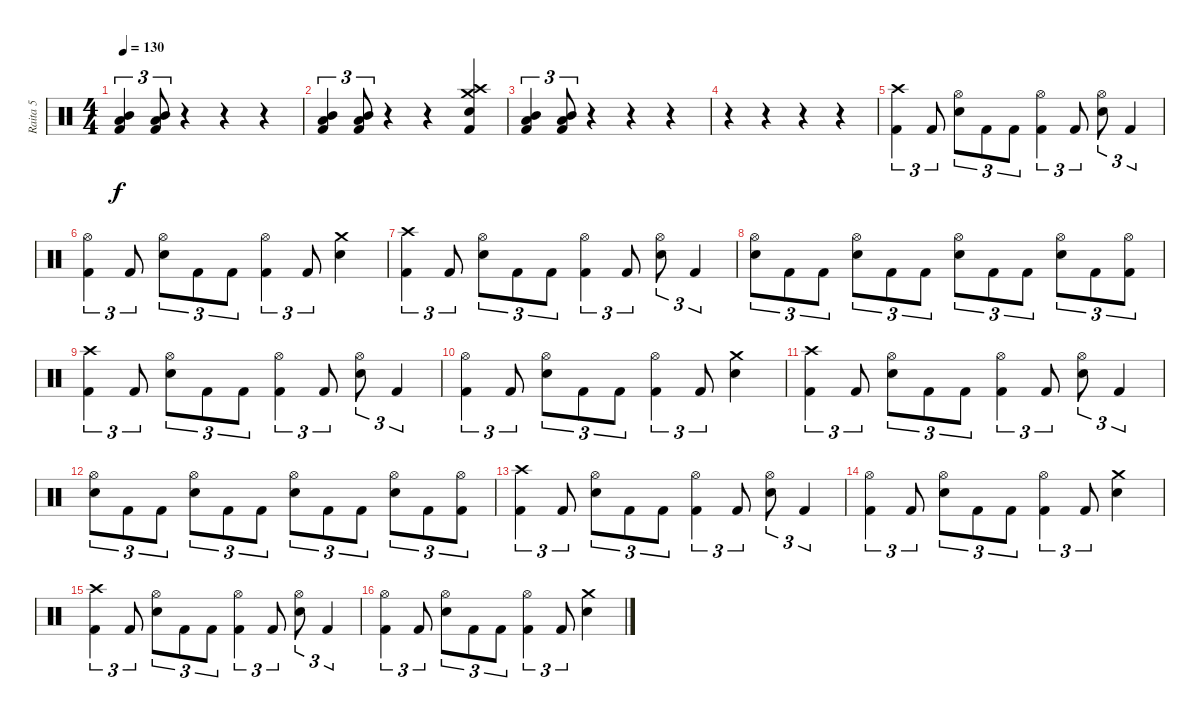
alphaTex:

\track ("Raita 5" "Raita 5") {instrument percussion}
\staff {score}
\articulation defaults
\ts (4 4)
\tempo 130
\clef neutral
\ks c
("Mid Tom (hit)" "Low Tom (hit)" "Kick (hit) 2").4{tu (3 2) dy f} ("Mid Tom (hit)" "Low Tom (hit)" "Kick (hit) 2").8{tu (3 2)} r.4 r.4 r.4 |
("Mid Tom (hit)" "Low Tom (hit)" "Kick (hit) 2").4{tu (3 2)} ("Mid Tom (hit)" "Low Tom (hit)" "Kick (hit) 2").8{tu (3 2)} r.4 r.4 ("Crash medium (hit)" "Crash high (hit)" "Snare (hit) 2" "Kick (hit) 2").4 |
("Mid Tom (hit)" "Low Tom (hit)" "Kick (hit) 2").4{tu (3 2)} ("Mid Tom (hit)" "Low Tom (hit)" "Kick (hit) 2").8{tu (3 2)} r.4 r.4 r.4 |
r.4 r.4 r.4 r.4 |
("Crash high (hit)" "Kick (hit) 2").4{tu (3 2)} "Kick (hit) 2".8{tu (3 2)} ("Hi-Hat (open)" "Snare (hit) 2").8{tu (3 2)} "Kick (hit) 2".8{tu (3 2)} "Kick (hit) 2".8{tu (3 2)} ("Hi-Hat (open)" "Kick (hit) 2").4{tu (3 2)} "Kick (hit) 2".8{tu (3 2)} ("Hi-Hat (open)" "Snare (hit) 2").8{tu (3 2)} "Kick (hit) 2".4{tu (3 2)} |
("Hi-Hat (open)" "Kick (hit) 2").4{tu (3 2)} "Kick (hit) 2".8{tu (3 2)} ("Hi-Hat (open)" "Snare (hit) 2").8{tu (3 2)} "Kick (hit) 2".8{tu (3 2)} "Kick (hit) 2".8{tu (3 2)} ("Hi-Hat (open)" "Kick (hit) 2").4{tu (3 2)} "Kick (hit) 2".8{tu (3 2)} ("Crash medium (hit)" "Snare (hit) 2").4 |
("Crash high (hit)" "Kick (hit) 2").4{tu (3 2)} "Kick (hit) 2".8{tu (3 2)} ("Hi-Hat (open)" "Snare (hit) 2").8{tu (3 2)} "Kick (hit) 2".8{tu (3 2)} "Kick (hit) 2".8{tu (3 2)} ("Hi-Hat (open)" "Kick (hit) 2").4{tu (3 2)} "Kick (hit) 2".8{tu (3 2)} ("Hi-Hat (open)" "Snare (hit) 2").8{tu (3 2)} "Kick (hit) 2".4{tu (3 2)} |
("Hi-Hat (open)" "Snare (hit) 2").8{tu (3 2)} "Kick (hit) 2".8{tu (3 2)} "Kick (hit) 2".8{tu (3 2)} ("Hi-Hat (open)" "Snare (hit) 2").8{tu (3 2)} "Kick (hit) 2".8{tu (3 2)} "Kick (hit) 2".8{tu (3 2)} ("Hi-Hat (open)" "Snare (hit) 2").8{tu (3 2)} "Kick (hit) 2".8{tu (3 2)} "Kick (hit) 2".8{tu (3 2)} ("Hi-Hat (open)" "Snare (hit) 2").8{tu (3 2)} "Kick (hit) 2".8{tu (3 2)} ("Hi-Hat (open)" "Kick (hit) 2").8{tu (3 2)} |
("Crash high (hit)" "Kick (hit) 2").4{tu (3 2)} "Kick (hit) 2".8{tu (3 2)} ("Hi-Hat (open)" "Snare (hit) 2").8{tu (3 2)} "Kick (hit) 2".8{tu (3 2)} "Kick (hit) 2".8{tu (3 2)} ("Hi-Hat (open)" "Kick (hit) 2").4{tu (3 2)} "Kick (hit) 2".8{tu (3 2)} ("Hi-Hat (open)" "Snare (hit) 2").8{tu (3 2)} "Kick (hit) 2".4{tu (3 2)} |
("Hi-Hat (open)" "Kick (hit) 2").4{tu (3 2)} "Kick (hit) 2".8{tu (3 2)} ("Hi-Hat (open)" "Snare (hit) 2").8{tu (3 2)} "Kick (hit) 2".8{tu (3 2)} "Kick (hit) 2".8{tu (3 2)} ("Hi-Hat (open)" "Kick (hit) 2").4{tu (3 2)} "Kick (hit) 2".8{tu (3 2)} ("Crash medium (hit)" "Snare (hit) 2").4 |
("Crash high (hit)" "Kick (hit) 2").4{tu (3 2)} "Kick (hit) 2".8{tu (3 2)} ("Hi-Hat (open)" "Snare (hit) 2").8{tu (3 2)} "Kick (hit) 2".8{tu (3 2)} "Kick (hit) 2".8{tu (3 2)} ("Hi-Hat (open)" "Kick (hit) 2").4{tu (3 2)} "Kick (hit) 2".8{tu (3 2)} ("Hi-Hat (open)" "Snare (hit) 2").8{tu (3 2)} "Kick (hit) 2".4{tu (3 2)} |
("Hi-Hat (open)" "Snare (hit) 2").8{tu (3 2)} "Kick (hit) 2".8{tu (3 2)} "Kick (hit) 2".8{tu (3 2)} ("Hi-Hat (open)" "Snare (hit) 2").8{tu (3 2)} "Kick (hit) 2".8{tu (3 2)} "Kick (hit) 2".8{tu (3 2)} ("Hi-Hat (open)" "Snare (hit) 2").8{tu (3 2)} "Kick (hit) 2".8{tu (3 2)} "Kick (hit) 2".8{tu (3 2)} ("Hi-Hat (open)" "Snare (hit) 2").8{tu (3 2)} "Kick (hit) 2".8{tu (3 2)} ("Hi-Hat (open)" "Kick (hit) 2").8{tu (3 2)} |
("Crash high (hit)" "Kick (hit) 2").4{tu (3 2)} "Kick (hit) 2".8{tu (3 2)} ("Hi-Hat (open)" "Snare (hit) 2").8{tu (3 2)} "Kick (hit) 2".8{tu (3 2)} "Kick (hit) 2".8{tu (3 2)} ("Hi-Hat (open)" "Kick (hit) 2").4{tu (3 2)} "Kick (hit) 2".8{tu (3 2)} ("Hi-Hat (open)" "Snare (hit) 2").8{tu (3 2)} "Kick (hit) 2".4{tu (3 2)} |
("Hi-Hat (open)" "Kick (hit) 2").4{tu (3 2)} "Kick (hit) 2".8{tu (3 2)} ("Hi-Hat (open)" "Snare (hit) 2").8{tu (3 2)} "Kick (hit) 2".8{tu (3 2)} "Kick (hit) 2".8{tu (3 2)} ("Hi-Hat (open)" "Kick (hit) 2").4{tu (3 2)} "Kick (hit) 2".8{tu (3 2)} ("Crash medium (hit)" "Snare (hit) 2").4 |
("Crash high (hit)" "Kick (hit) 2").4{tu (3 2)} "Kick (hit) 2".8{tu (3 2)} ("Hi-Hat (open)" "Snare (hit) 2").8{tu (3 2)} "Kick (hit) 2".8{tu (3 2)} "Kick (hit) 2".8{tu (3 2)} ("Hi-Hat (open)" "Kick (hit) 2").4{tu (3 2)} "Kick (hit) 2".8{tu (3 2)} ("Hi-Hat (open)" "Snare (hit) 2").8{tu (3 2)} "Kick (hit) 2".4{tu (3 2)} |
("Hi-Hat (open)" "Kick (hit) 2").4{tu (3 2)} "Kick (hit) 2".8{tu (3 2)} ("Hi-Hat (open)" "Snare (hit) 2").8{tu (3 2)} "Kick (hit) 2".8{tu (3 2)} "Kick (hit) 2".8{tu (3 2)} ("Hi-Hat (open)" "Kick (hit) 2").4{tu (3 2)} "Kick (hit) 2".8{tu (3 2)} ("Crash medium (hit)" "Snare (hit) 2").4
